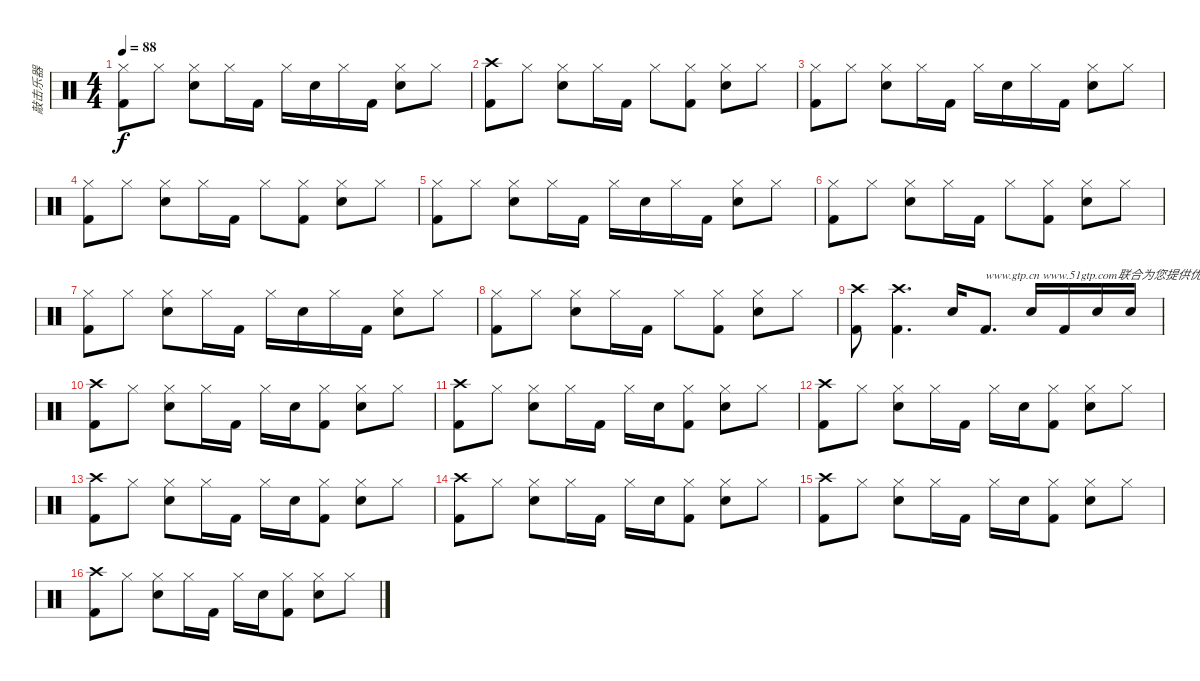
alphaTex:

\track ("敲击乐器" "敲击乐器") {instrument percussion}
\staff {score}
\articulation defaults
\ts (4 4)
\tempo 88
\clef neutral
\ks c
("Hi-Hat (closed)" "Kick (hit) 2").8{dy f} "Hi-Hat (closed)".8 ("Hi-Hat (closed)" "Electric Snare (hit)").8 "Hi-Hat (closed)".16 "Kick (hit) 2".16 "Hi-Hat (closed)".16 "Electric Snare (hit)".16 "Hi-Hat (closed)".16 "Kick (hit) 2".16 ("Hi-Hat (closed)" "Electric Snare (hit)").8 "Hi-Hat (closed)".8 |
("Crash high (hit)" "Kick (hit) 2").8 "Hi-Hat (closed)".8 ("Hi-Hat (closed)" "Electric Snare (hit)").8 "Hi-Hat (closed)".16 "Kick (hit) 2".16 "Hi-Hat (closed)".8 ("Hi-Hat (closed)" "Kick (hit) 2").8 ("Hi-Hat (closed)" "Electric Snare (hit)").8 "Hi-Hat (closed)".8 |
("Hi-Hat (closed)" "Kick (hit) 2").8 "Hi-Hat (closed)".8 ("Hi-Hat (closed)" "Electric Snare (hit)").8 "Hi-Hat (closed)".16 "Kick (hit) 2".16 "Hi-Hat (closed)".16 "Electric Snare (hit)".16 "Hi-Hat (closed)".16 "Kick (hit) 2".16 ("Hi-Hat (closed)" "Electric Snare (hit)").8 "Hi-Hat (closed)".8 |
("Hi-Hat (closed)" "Kick (hit) 2").8 "Hi-Hat (closed)".8 ("Hi-Hat (closed)" "Electric Snare (hit)").8 "Hi-Hat (closed)".16 "Kick (hit) 2".16 "Hi-Hat (closed)".8 ("Hi-Hat (closed)" "Kick (hit) 2").8 ("Hi-Hat (closed)" "Electric Snare (hit)").8 "Hi-Hat (closed)".8 |
("Hi-Hat (closed)" "Kick (hit) 2").8 "Hi-Hat (closed)".8 ("Hi-Hat (closed)" "Electric Snare (hit)").8 "Hi-Hat (closed)".16 "Kick (hit) 2".16 "Hi-Hat (closed)".16 "Electric Snare (hit)".16 "Hi-Hat (closed)".16 "Kick (hit) 2".16 ("Hi-Hat (closed)" "Electric Snare (hit)").8 "Hi-Hat (closed)".8 |
("Hi-Hat (closed)" "Kick (hit) 2").8 "Hi-Hat (closed)".8 ("Hi-Hat (closed)" "Electric Snare (hit)").8 "Hi-Hat (closed)".16 "Kick (hit) 2".16 "Hi-Hat (closed)".8 ("Hi-Hat (closed)" "Kick (hit) 2").8 ("Hi-Hat (closed)" "Electric Snare (hit)").8 "Hi-Hat (closed)".8 |
("Hi-Hat (closed)" "Kick (hit) 2").8{txt " "} "Hi-Hat (closed)".8 ("Hi-Hat (closed)" "Electric Snare (hit)").8 "Hi-Hat (closed)".16 "Kick (hit) 2".16 "Hi-Hat (closed)".16 "Electric Snare (hit)".16 "Hi-Hat (closed)".16 "Kick (hit) 2".16 ("Hi-Hat (closed)" "Electric Snare (hit)").8 "Hi-Hat (closed)".8 |
("Hi-Hat (closed)" "Kick (hit) 2").8 "Hi-Hat (closed)".8 ("Hi-Hat (closed)" "Electric Snare (hit)").8 "Hi-Hat (closed)".16 "Kick (hit) 2".16 "Hi-Hat (closed)".8 ("Hi-Hat (closed)" "Kick (hit) 2").8 ("Hi-Hat (closed)" "Electric Snare (hit)").8 "Hi-Hat (closed)".8 |
("Crash high (hit)" "Kick (hit) 2").8 ("Crash high (hit)" "Kick (hit) 2").4{d} "Electric Snare (hit)".16 "Kick (hit) 2".8{d txt "www.gtp.cn www.51gtp.com联合为您提供优秀的GTP!"} "Electric Snare (hit)".16 "Kick (hit) 2".16 "Electric Snare (hit)".16 "Electric Snare (hit)".16 |
("Crash high (hit)" "Kick (hit) 2").8 "Hi-Hat (closed)".8 ("Hi-Hat (closed)" "Electric Snare (hit)").8 "Hi-Hat (closed)".16 "Kick (hit) 2".16 "Hi-Hat (closed)".16 "Electric Snare (hit)".16 ("Hi-Hat (closed)" "Kick (hit) 2").8 ("Hi-Hat (closed)" "Electric Snare (hit)").8 "Hi-Hat (closed)".8 |
("Crash high (hit)" "Kick (hit) 2").8 "Hi-Hat (closed)".8 ("Hi-Hat (closed)" "Electric Snare (hit)").8 "Hi-Hat (closed)".16 "Kick (hit) 2".16 "Hi-Hat (closed)".16 "Electric Snare (hit)".16 ("Hi-Hat (closed)" "Kick (hit) 2").8 ("Hi-Hat (closed)" "Electric Snare (hit)").8 "Hi-Hat (closed)".8 |
("Crash high (hit)" "Kick (hit) 2").8 "Hi-Hat (closed)".8 ("Hi-Hat (closed)" "Electric Snare (hit)").8 "Hi-Hat (closed)".16 "Kick (hit) 2".16 "Hi-Hat (closed)".16 "Electric Snare (hit)".16 ("Hi-Hat (closed)" "Kick (hit) 2").8 ("Hi-Hat (closed)" "Electric Snare (hit)").8 "Hi-Hat (closed)".8 |
("Crash high (hit)" "Kick (hit) 2").8 "Hi-Hat (closed)".8 ("Hi-Hat (closed)" "Electric Snare (hit)").8 "Hi-Hat (closed)".16 "Kick (hit) 2".16 "Hi-Hat (closed)".16 "Electric Snare (hit)".16 ("Hi-Hat (closed)" "Kick (hit) 2").8 ("Hi-Hat (closed)" "Electric Snare (hit)").8 "Hi-Hat (closed)".8 |
("Crash high (hit)" "Kick (hit) 2").8 "Hi-Hat (closed)".8 ("Hi-Hat (closed)" "Electric Snare (hit)").8 "Hi-Hat (closed)".16 "Kick (hit) 2".16 "Hi-Hat (closed)".16 "Electric Snare (hit)".16 ("Hi-Hat (closed)" "Kick (hit) 2").8 ("Hi-Hat (closed)" "Electric Snare (hit)").8 "Hi-Hat (closed)".8 |
("Crash high (hit)" "Kick (hit) 2").8 "Hi-Hat (closed)".8 ("Hi-Hat (closed)" "Electric Snare (hit)").8 "Hi-Hat (closed)".16 "Kick (hit) 2".16 "Hi-Hat (closed)".16 "Electric Snare (hit)".16 ("Hi-Hat (closed)" "Kick (hit) 2").8 ("Hi-Hat (closed)" "Electric Snare (hit)").8 "Hi-Hat (closed)".8 |
("Crash high (hit)" "Kick (hit) 2").8 "Hi-Hat (closed)".8 ("Hi-Hat (closed)" "Electric Snare (hit)").8 "Hi-Hat (closed)".16 "Kick (hit) 2".16 "Hi-Hat (closed)".16 "Electric Snare (hit)".16 ("Hi-Hat (closed)" "Kick (hit) 2").8 ("Hi-Hat (closed)" "Electric Snare (hit)").8 "Hi-Hat (closed)".8
